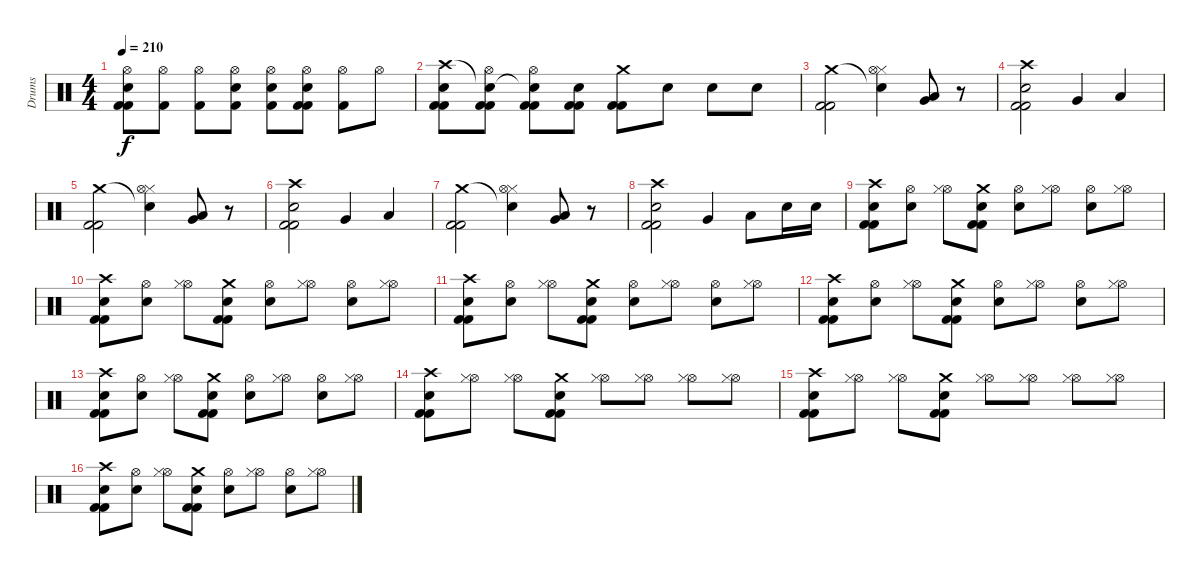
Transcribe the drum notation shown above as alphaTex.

\track ("Drums" "Drums") {instrument percussion}
\staff {score}
\articulation defaults
\ts (4 4)
\tempo 210
\clef neutral
\ks c
("Hi-Hat (open)" "Snare (hit) 2" "Kick (hit) 2" "Kick (hit) 2").8{dy f} ("Hi-Hat (open)" "Kick (hit) 2").8 ("Hi-Hat (open)" "Kick (hit) 2").8 ("Hi-Hat (open)" "Electric Snare (hit)" "Kick (hit) 2").8 ("Hi-Hat (open)" "Snare (hit) 2" "Kick (hit) 2").8 ("Hi-Hat (open)" "Snare (hit) 2" "Kick (hit) 2" "Kick (hit) 2").8 ("Hi-Hat (open)" "Kick (hit) 2").8 "Hi-Hat (open)".8 |
("Crash high (hit)" "Snare (hit) 2" "Kick (hit) 2" "Kick (hit) 2").8 ("Snare (hit)"{t} "Hi-Hat (open)" "Kick (hit) 2" "Kick (hit) 2").8 ("Snare (hit)"{t} "Hi-Hat (open)" "Kick (hit) 2" "Kick (hit) 2").8 ("Electric Snare (hit)" "Kick (hit) 2" "Kick (hit) 2").8 ("Crash medium (hit)" "Kick (hit) 2" "Kick (hit) 2").8 "Snare (hit) 2".8 "Snare (hit) 2".8 "Snare (hit) 2".8 |
("Crash medium (hit)" "Kick (hit) 2" "Kick (hit) 2").2 ("Snare (hit)"{t} "Hi-Hat (closed)" "Hi-Hat (open)").4 ("Low Floor Tom (hit)" "Very Low Tom (hit)").8 r.8 |
("Crash high (hit)" "Electric Snare (hit)" "Kick (hit) 2" "Kick (hit) 2").2 "Very Low Tom (hit)".4 "Low Tom (hit)".4 |
("Crash medium (hit)" "Kick (hit) 2" "Kick (hit) 2").2 ("Snare (hit)"{t} "Hi-Hat (closed)" "Hi-Hat (open)").4 ("Low Floor Tom (hit)" "Very Low Tom (hit)").8 r.8 |
("Crash high (hit)" "Electric Snare (hit)" "Kick (hit) 2" "Kick (hit) 2").2 "Very Low Tom (hit)".4 "Low Tom (hit)".4 |
("Crash medium (hit)" "Kick (hit) 2" "Kick (hit) 2").2 ("Snare (hit)"{t} "Hi-Hat (closed)" "Hi-Hat (open)").4 ("Low Floor Tom (hit)" "Very Low Tom (hit)").8 r.8 |
("Crash high (hit)" "Electric Snare (hit)" "Kick (hit) 2" "Kick (hit) 2").2 "Very Low Tom (hit)".4 "Low Tom (hit)".8 "Snare (hit) 2".16 "Snare (hit) 2".16 |
("Crash high (hit)" "Snare (hit) 2" "Kick (hit) 2" "Kick (hit) 2").8 ("Hi-Hat (open)" "Snare (hit) 2").8 ("Hi-Hat (open)" "Hi-Hat (closed)").8 ("Crash medium (hit)" "Snare (hit) 2" "Kick (hit) 2" "Kick (hit) 2").8 ("Hi-Hat (open)" "Snare (hit) 2").8 ("Hi-Hat (open)" "Hi-Hat (closed)").8 ("Hi-Hat (open)" "Snare (hit) 2").8 ("Hi-Hat (open)" "Hi-Hat (closed)").8 |
("Crash high (hit)" "Snare (hit) 2" "Kick (hit) 2" "Kick (hit) 2").8 ("Hi-Hat (open)" "Snare (hit) 2").8 ("Hi-Hat (open)" "Hi-Hat (closed)").8 ("Crash medium (hit)" "Snare (hit) 2" "Kick (hit) 2" "Kick (hit) 2").8 ("Hi-Hat (open)" "Snare (hit) 2").8 ("Hi-Hat (open)" "Hi-Hat (closed)").8 ("Hi-Hat (open)" "Snare (hit) 2").8 ("Hi-Hat (open)" "Hi-Hat (closed)").8 |
("Crash high (hit)" "Snare (hit) 2" "Kick (hit) 2" "Kick (hit) 2").8 ("Hi-Hat (open)" "Snare (hit) 2").8 ("Hi-Hat (open)" "Hi-Hat (closed)").8 ("Crash medium (hit)" "Snare (hit) 2" "Kick (hit) 2" "Kick (hit) 2").8 ("Hi-Hat (open)" "Snare (hit) 2").8 ("Hi-Hat (open)" "Hi-Hat (closed)").8 ("Hi-Hat (open)" "Snare (hit) 2").8 ("Hi-Hat (open)" "Hi-Hat (closed)").8 |
("Crash high (hit)" "Snare (hit) 2" "Kick (hit) 2" "Kick (hit) 2").8 ("Hi-Hat (open)" "Snare (hit) 2").8 ("Hi-Hat (open)" "Hi-Hat (closed)").8 ("Crash medium (hit)" "Snare (hit) 2" "Kick (hit) 2" "Kick (hit) 2").8 ("Hi-Hat (open)" "Snare (hit) 2").8 ("Hi-Hat (open)" "Hi-Hat (closed)").8 ("Hi-Hat (open)" "Snare (hit) 2").8 ("Hi-Hat (open)" "Hi-Hat (closed)").8 |
("Crash high (hit)" "Snare (hit) 2" "Kick (hit) 2" "Kick (hit) 2").8 ("Hi-Hat (open)" "Snare (hit) 2").8 ("Hi-Hat (open)" "Hi-Hat (closed)").8 ("Crash medium (hit)" "Snare (hit) 2" "Kick (hit) 2" "Kick (hit) 2").8 ("Hi-Hat (open)" "Snare (hit) 2").8 ("Hi-Hat (open)" "Hi-Hat (closed)").8 ("Hi-Hat (open)" "Snare (hit) 2").8 ("Hi-Hat (open)" "Hi-Hat (closed)").8 |
("Crash high (hit)" "Snare (hit) 2" "Kick (hit) 2" "Kick (hit) 2").8 ("Hi-Hat (open)" "Hi-Hat (closed)").8 ("Hi-Hat (open)" "Hi-Hat (closed)").8 ("Crash medium (hit)" "Snare (hit) 2" "Kick (hit) 2" "Kick (hit) 2").8 ("Hi-Hat (open)" "Hi-Hat (closed)").8 ("Hi-Hat (open)" "Hi-Hat (closed)").8 ("Hi-Hat (open)" "Hi-Hat (closed)").8 ("Hi-Hat (open)" "Hi-Hat (closed)").8 |
("Crash high (hit)" "Snare (hit) 2" "Kick (hit) 2" "Kick (hit) 2").8 ("Hi-Hat (open)" "Hi-Hat (closed)").8 ("Hi-Hat (open)" "Hi-Hat (closed)").8 ("Crash medium (hit)" "Snare (hit) 2" "Kick (hit) 2" "Kick (hit) 2").8 ("Hi-Hat (open)" "Hi-Hat (closed)").8 ("Hi-Hat (open)" "Hi-Hat (closed)").8 ("Hi-Hat (open)" "Hi-Hat (closed)").8 ("Hi-Hat (open)" "Hi-Hat (closed)").8 |
("Crash high (hit)" "Snare (hit) 2" "Kick (hit) 2" "Kick (hit) 2").8 ("Hi-Hat (open)" "Snare (hit) 2").8 ("Hi-Hat (open)" "Hi-Hat (closed)").8 ("Crash medium (hit)" "Snare (hit) 2" "Kick (hit) 2" "Kick (hit) 2").8 ("Hi-Hat (open)" "Snare (hit) 2").8 ("Hi-Hat (open)" "Hi-Hat (closed)").8 ("Hi-Hat (open)" "Snare (hit) 2").8 ("Hi-Hat (open)" "Hi-Hat (closed)").8
